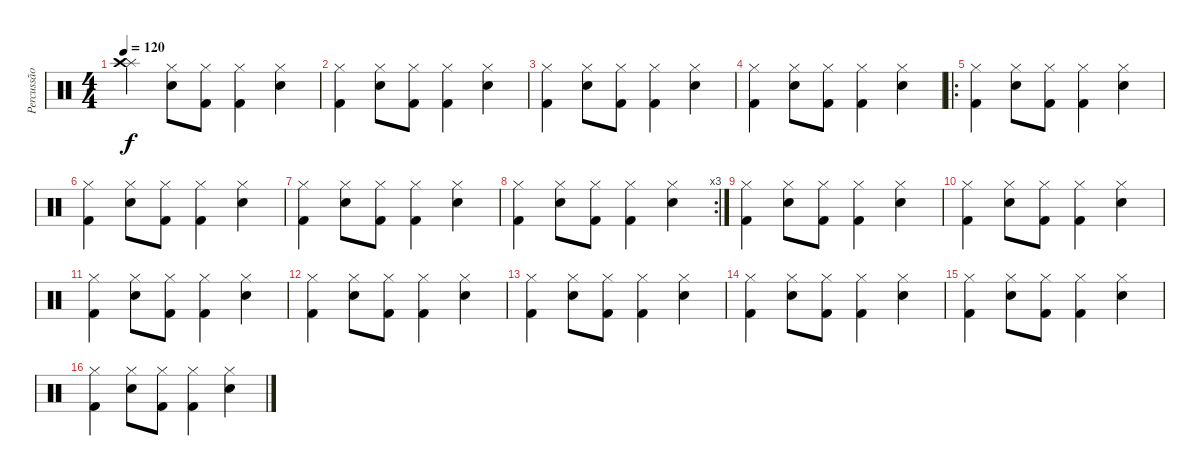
\track ("Percussão" "Percussão") {instrument percussion}
\staff {score}
\articulation defaults
\ts (4 4)
\tempo 120
\clef neutral
\ks c
("Splash (hit)" "Crash high (hit)").4{dy f} ("Snare (hit) 2" "Hi-Hat (closed)").8 ("Kick (hit) 2" "Hi-Hat (closed)").8 ("Kick (hit) 2" "Hi-Hat (closed)").4 ("Snare (hit) 2" "Hi-Hat (closed)").4 |
("Kick (hit) 2" "Hi-Hat (closed)").4 ("Snare (hit) 2" "Hi-Hat (closed)").8 ("Kick (hit) 2" "Hi-Hat (closed)").8 ("Kick (hit) 2" "Hi-Hat (closed)").4 ("Snare (hit) 2" "Hi-Hat (closed)").4 |
("Kick (hit) 2" "Hi-Hat (closed)").4 ("Snare (hit) 2" "Hi-Hat (closed)").8 ("Kick (hit) 2" "Hi-Hat (closed)").8 ("Kick (hit) 2" "Hi-Hat (closed)").4 ("Snare (hit) 2" "Hi-Hat (closed)").4 |
("Kick (hit) 2" "Hi-Hat (closed)").4 ("Snare (hit) 2" "Hi-Hat (closed)").8 ("Kick (hit) 2" "Hi-Hat (closed)").8 ("Kick (hit) 2" "Hi-Hat (closed)").4 ("Snare (hit) 2" "Hi-Hat (closed)").4 |
\ro
("Kick (hit) 2" "Hi-Hat (closed)").4 ("Snare (hit) 2" "Hi-Hat (closed)").8 ("Kick (hit) 2" "Hi-Hat (closed)").8 ("Kick (hit) 2" "Hi-Hat (closed)").4 ("Snare (hit) 2" "Hi-Hat (closed)").4 |
("Kick (hit) 2" "Hi-Hat (closed)").4 ("Snare (hit) 2" "Hi-Hat (closed)").8 ("Kick (hit) 2" "Hi-Hat (closed)").8 ("Kick (hit) 2" "Hi-Hat (closed)").4 ("Snare (hit) 2" "Hi-Hat (closed)").4 |
("Kick (hit) 2" "Hi-Hat (closed)").4 ("Snare (hit) 2" "Hi-Hat (closed)").8 ("Kick (hit) 2" "Hi-Hat (closed)").8 ("Kick (hit) 2" "Hi-Hat (closed)").4 ("Snare (hit) 2" "Hi-Hat (closed)").4 |
\rc 3
("Kick (hit) 2" "Hi-Hat (closed)").4 ("Snare (hit) 2" "Hi-Hat (closed)").8 ("Kick (hit) 2" "Hi-Hat (closed)").8 ("Kick (hit) 2" "Hi-Hat (closed)").4 ("Snare (hit) 2" "Hi-Hat (closed)").4 |
("Kick (hit) 2" "Hi-Hat (closed)").4 ("Snare (hit) 2" "Hi-Hat (closed)").8 ("Kick (hit) 2" "Hi-Hat (closed)").8 ("Kick (hit) 2" "Hi-Hat (closed)").4 ("Snare (hit) 2" "Hi-Hat (closed)").4 |
("Kick (hit) 2" "Hi-Hat (closed)").4 ("Snare (hit) 2" "Hi-Hat (closed)").8 ("Kick (hit) 2" "Hi-Hat (closed)").8 ("Kick (hit) 2" "Hi-Hat (closed)").4 ("Snare (hit) 2" "Hi-Hat (closed)").4 |
("Kick (hit) 2" "Hi-Hat (closed)").4 ("Snare (hit) 2" "Hi-Hat (closed)").8 ("Kick (hit) 2" "Hi-Hat (closed)").8 ("Kick (hit) 2" "Hi-Hat (closed)").4 ("Snare (hit) 2" "Hi-Hat (closed)").4 |
("Kick (hit) 2" "Hi-Hat (closed)").4 ("Snare (hit) 2" "Hi-Hat (closed)").8 ("Kick (hit) 2" "Hi-Hat (closed)").8 ("Kick (hit) 2" "Hi-Hat (closed)").4 ("Snare (hit) 2" "Hi-Hat (closed)").4 |
("Kick (hit) 2" "Hi-Hat (closed)").4 ("Snare (hit) 2" "Hi-Hat (closed)").8 ("Kick (hit) 2" "Hi-Hat (closed)").8 ("Kick (hit) 2" "Hi-Hat (closed)").4 ("Snare (hit) 2" "Hi-Hat (closed)").4 |
("Kick (hit) 2" "Hi-Hat (closed)").4 ("Snare (hit) 2" "Hi-Hat (closed)").8 ("Kick (hit) 2" "Hi-Hat (closed)").8 ("Kick (hit) 2" "Hi-Hat (closed)").4 ("Snare (hit) 2" "Hi-Hat (closed)").4 |
("Kick (hit) 2" "Hi-Hat (closed)").4 ("Snare (hit) 2" "Hi-Hat (closed)").8 ("Kick (hit) 2" "Hi-Hat (closed)").8 ("Kick (hit) 2" "Hi-Hat (closed)").4 ("Snare (hit) 2" "Hi-Hat (closed)").4 |
("Kick (hit) 2" "Hi-Hat (closed)").4 ("Snare (hit) 2" "Hi-Hat (closed)").8 ("Kick (hit) 2" "Hi-Hat (closed)").8 ("Kick (hit) 2" "Hi-Hat (closed)").4 ("Snare (hit) 2" "Hi-Hat (closed)").4
